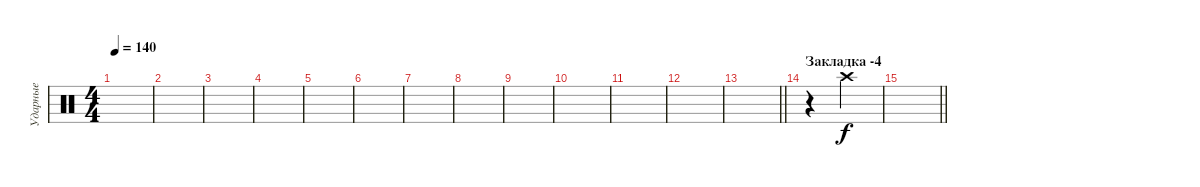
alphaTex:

\track ("Ударные" "Ударные") {instrument percussion}
\staff {score}
\articulation defaults
\ts (4 4)
\tempo 140
\clef neutral
\ks c
|
|
|
|
|
|
|
|
|
|
|
|
\barLineRight lightlight
|
\section ("" "Закладка -4")
r.4 "Crash high (hit)".4 |
\barLineRight lightlight
